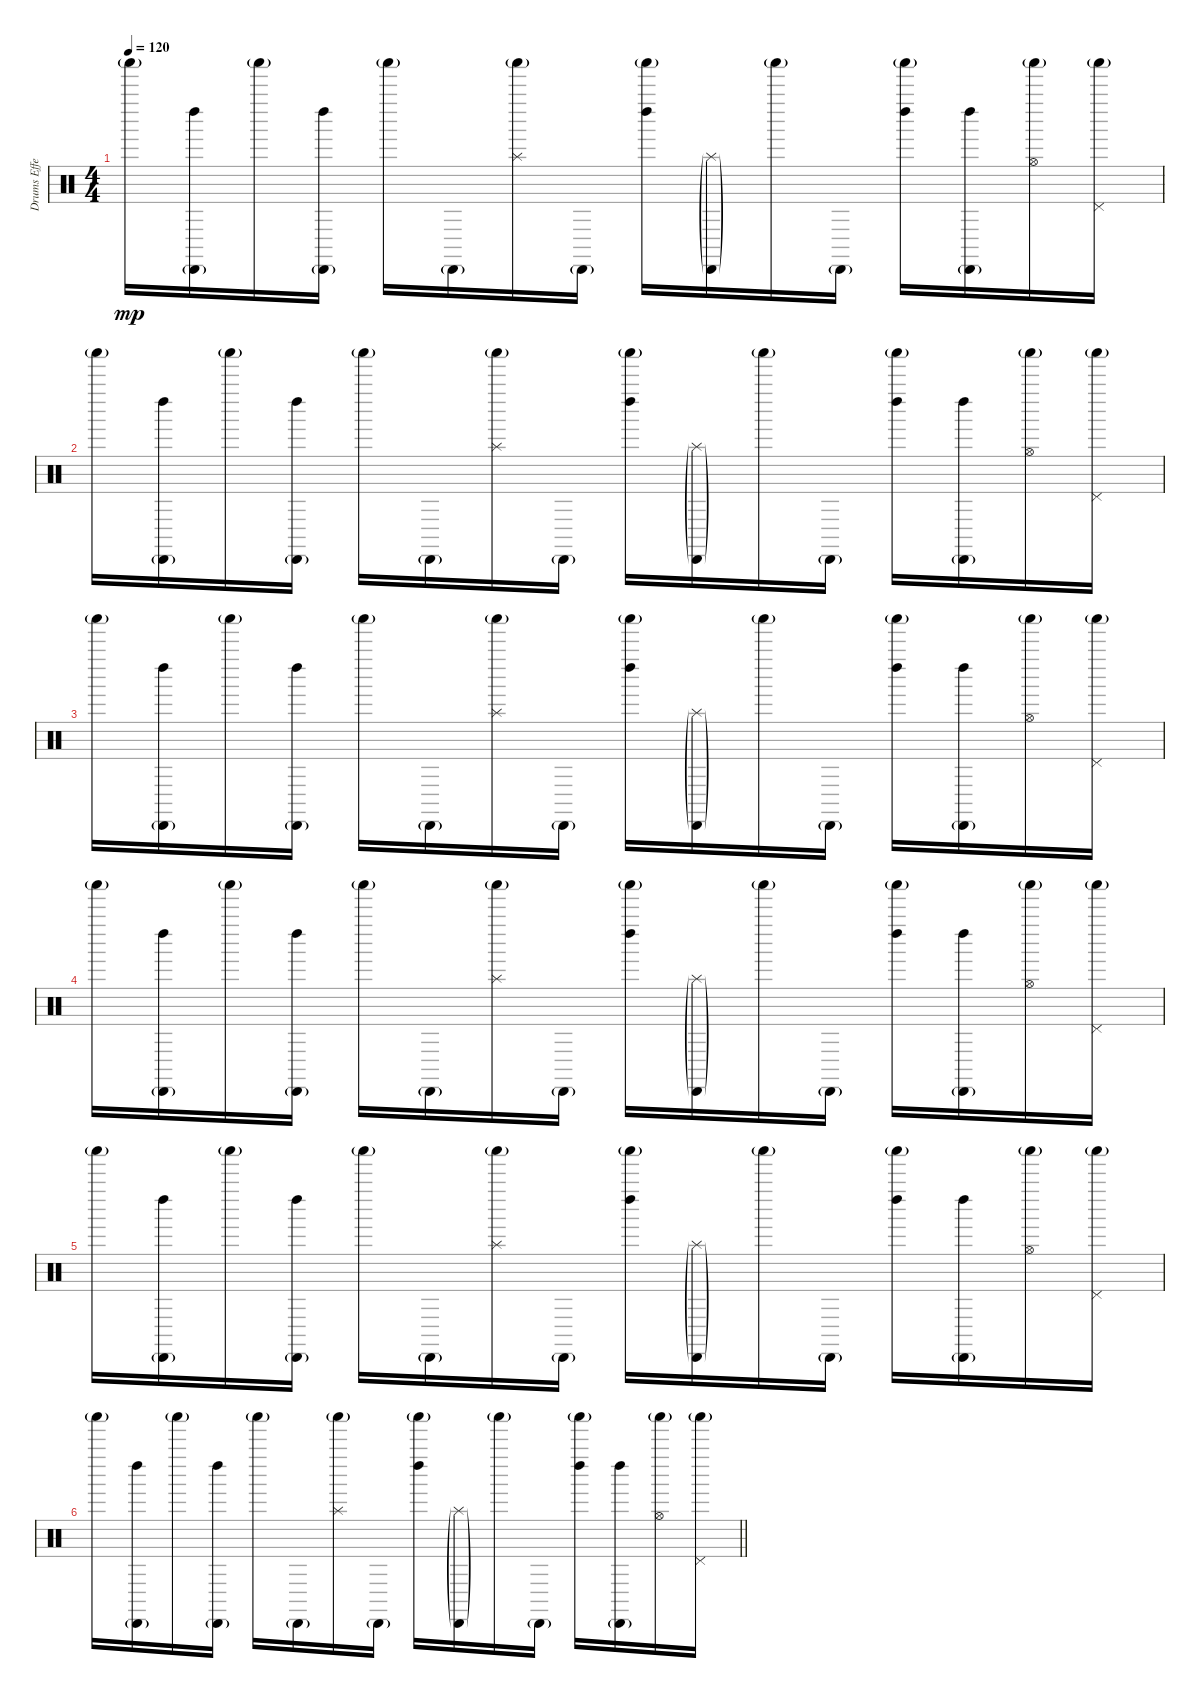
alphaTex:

\track ("Drums Effects" "Drums Effe") {instrument percussion}
\staff {score}
\articulation defaults
\ts (4 4)
\tempo 120
\clef neutral
\ks c "Shaker (hit)"{g}.16{dy mp}
("Cabasa (hit)"{g} "Left Maraca (hit)").16 "Shaker (hit)"{g}.16 ("Cabasa (hit)"{g} "Left Maraca (hit)").16 "Shaker (hit)"{g}.16 "Cabasa (hit)"{g}.16 ("Shaker (hit)"{g} "Splash (hit)").16 "Cabasa (hit)"{g}.16 ("Shaker (hit)"{g} "Left Maraca (hit)").16 ("Cabasa (hit)"{g} "Splash (hit)"{g}).16 "Shaker (hit)"{g}.16 "Cabasa (hit)"{g}.16 ("Shaker (hit)"{g} "Left Maraca (hit)").16 ("Cabasa (hit)"{g} "Left Maraca (hit)").16 ("Shaker (hit)"{g} "Hi-Hat (open)").16 ("Shaker (hit)"{g} "Pedal Hi-Hat (hit)").16 |
"Shaker (hit)"{g}.16 ("Cabasa (hit)"{g} "Left Maraca (hit)").16 "Shaker (hit)"{g}.16 ("Cabasa (hit)"{g} "Left Maraca (hit)").16 "Shaker (hit)"{g}.16 "Cabasa (hit)"{g}.16 ("Shaker (hit)"{g} "Splash (hit)").16 "Cabasa (hit)"{g}.16 ("Shaker (hit)"{g} "Left Maraca (hit)").16 ("Cabasa (hit)"{g} "Splash (hit)"{g}).16 "Shaker (hit)"{g}.16 "Cabasa (hit)"{g}.16 ("Shaker (hit)"{g} "Left Maraca (hit)").16 ("Cabasa (hit)"{g} "Left Maraca (hit)").16 ("Shaker (hit)"{g} "Hi-Hat (open)").16 ("Shaker (hit)"{g} "Pedal Hi-Hat (hit)").16 |
"Shaker (hit)"{g}.16 ("Cabasa (hit)"{g} "Left Maraca (hit)").16 "Shaker (hit)"{g}.16 ("Cabasa (hit)"{g} "Left Maraca (hit)").16 "Shaker (hit)"{g}.16 "Cabasa (hit)"{g}.16 ("Shaker (hit)"{g} "Splash (hit)").16 "Cabasa (hit)"{g}.16 ("Shaker (hit)"{g} "Left Maraca (hit)").16 ("Cabasa (hit)"{g} "Splash (hit)"{g}).16 "Shaker (hit)"{g}.16 "Cabasa (hit)"{g}.16 ("Shaker (hit)"{g} "Left Maraca (hit)").16 ("Cabasa (hit)"{g} "Left Maraca (hit)").16 ("Shaker (hit)"{g} "Hi-Hat (open)").16 ("Shaker (hit)"{g} "Pedal Hi-Hat (hit)").16 |
"Shaker (hit)"{g}.16 ("Cabasa (hit)"{g} "Left Maraca (hit)").16 "Shaker (hit)"{g}.16 ("Cabasa (hit)"{g} "Left Maraca (hit)").16 "Shaker (hit)"{g}.16 "Cabasa (hit)"{g}.16 ("Shaker (hit)"{g} "Splash (hit)").16 "Cabasa (hit)"{g}.16 ("Shaker (hit)"{g} "Left Maraca (hit)").16 ("Cabasa (hit)"{g} "Splash (hit)"{g}).16 "Shaker (hit)"{g}.16 "Cabasa (hit)"{g}.16 ("Shaker (hit)"{g} "Left Maraca (hit)").16 ("Cabasa (hit)"{g} "Left Maraca (hit)").16 ("Shaker (hit)"{g} "Hi-Hat (open)").16 ("Shaker (hit)"{g} "Pedal Hi-Hat (hit)").16 |
"Shaker (hit)"{g}.16 ("Cabasa (hit)"{g} "Left Maraca (hit)").16 "Shaker (hit)"{g}.16 ("Cabasa (hit)"{g} "Left Maraca (hit)").16 "Shaker (hit)"{g}.16 "Cabasa (hit)"{g}.16 ("Shaker (hit)"{g} "Splash (hit)").16 "Cabasa (hit)"{g}.16 ("Shaker (hit)"{g} "Left Maraca (hit)").16 ("Cabasa (hit)"{g} "Splash (hit)"{g}).16 "Shaker (hit)"{g}.16 "Cabasa (hit)"{g}.16 ("Shaker (hit)"{g} "Left Maraca (hit)").16 ("Cabasa (hit)"{g} "Left Maraca (hit)").16 ("Shaker (hit)"{g} "Hi-Hat (open)").16 ("Shaker (hit)"{g} "Pedal Hi-Hat (hit)").16 |
\barLineRight lightlight "Shaker (hit)"{g}.16
("Cabasa (hit)"{g} "Left Maraca (hit)").16 "Shaker (hit)"{g}.16 ("Cabasa (hit)"{g} "Left Maraca (hit)").16 "Shaker (hit)"{g}.16 "Cabasa (hit)"{g}.16 ("Shaker (hit)"{g} "Splash (hit)").16 "Cabasa (hit)"{g}.16 ("Shaker (hit)"{g} "Left Maraca (hit)").16 ("Cabasa (hit)"{g} "Splash (hit)"{g}).16 "Shaker (hit)"{g}.16 "Cabasa (hit)"{g}.16 ("Shaker (hit)"{g} "Left Maraca (hit)").16 ("Cabasa (hit)"{g} "Left Maraca (hit)").16 ("Shaker (hit)"{g} "Hi-Hat (open)").16 ("Shaker (hit)"{g} "Pedal Hi-Hat (hit)").16
